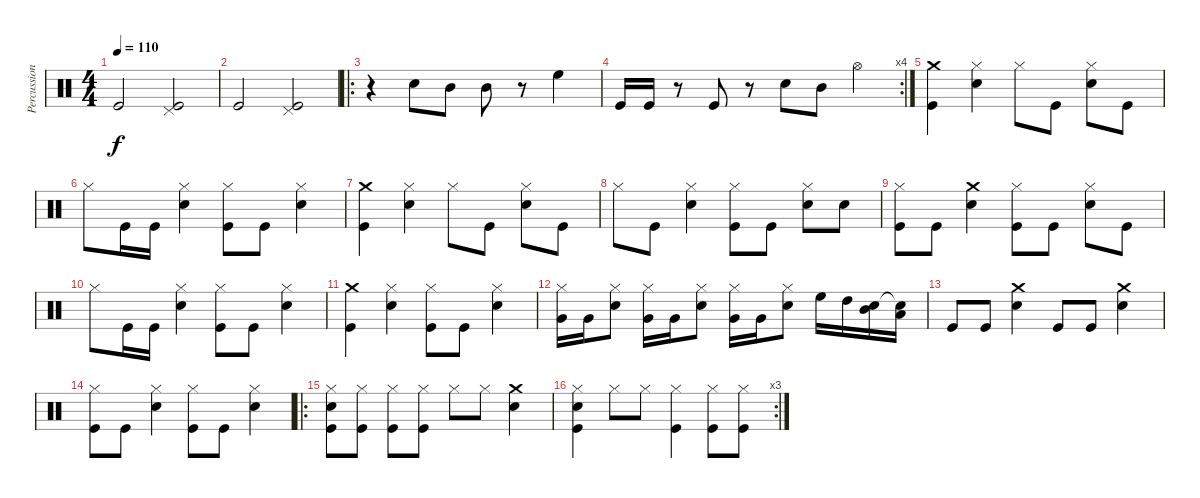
\track ("Percussion" "Percussion") {instrument percussion}
\staff {score}
\articulation defaults
\ts (4 4)
\tempo 110
\clef neutral
\ks c "Kick (hit)".2{dy f}
("Pedal Hi-Hat (hit)" "Kick (hit)").2 |
"Kick (hit)".2 ("Pedal Hi-Hat (hit)" "Kick (hit)").2 |
\ro
r.4 "Snare (hit) 2".8 "Mid Tom (hit)".8 "Mid Tom (hit)".8 r.8 "High Floor Tom (hit)".4 |
\rc 4 "Kick (hit)".16 "Kick (hit)".16
r.8 "Kick (hit)".8 r.8 "Snare (hit) 2".8 "Mid Tom (hit)".8 "Hi-Hat (open)".4 |
("Kick (hit)" "Crash medium (hit)").4 ("Hi-Hat (closed)" "Snare (hit) 2").4 "Hi-Hat (closed)".8 "Kick (hit)".8 ("Snare (hit) 2" "Hi-Hat (closed)").8 "Kick (hit)".8 |
"Hi-Hat (closed)".8 "Kick (hit)".16 "Kick (hit)".16 ("Snare (hit) 2" "Hi-Hat (closed)").4 ("Kick (hit)" "Hi-Hat (closed)").8 "Kick (hit)".8 ("Snare (hit) 2" "Hi-Hat (closed)").4 |
("Kick (hit)" "Crash medium (hit)").4 ("Snare (hit) 2" "Hi-Hat (closed)").4 "Hi-Hat (closed)".8 "Kick (hit)".8 ("Snare (hit) 2" "Hi-Hat (closed)").8 "Kick (hit)".8 |
"Hi-Hat (closed)".8 "Kick (hit)".8 ("Snare (hit) 2" "Hi-Hat (closed)").4 ("Kick (hit)" "Hi-Hat (closed)").8 "Kick (hit)".8 ("Snare (hit) 2" "Hi-Hat (closed)").8 "Snare (hit) 2".8 |
("Hi-Hat (closed)" "Kick (hit)").8 "Kick (hit)".8 ("Crash medium (hit)" "Snare (hit) 2").4 ("Hi-Hat (closed)" "Kick (hit)").8 "Kick (hit)".8 ("Snare (hit) 2" "Hi-Hat (closed)").8 "Kick (hit)".8 |
"Hi-Hat (closed)".8 "Kick (hit)".16 "Kick (hit)".16 ("Snare (hit) 2" "Hi-Hat (closed)").4 ("Kick (hit)" "Hi-Hat (closed)").8 "Kick (hit)".8 ("Snare (hit) 2" "Hi-Hat (closed)").4 |
("Kick (hit)" "Crash medium (hit)").4 ("Snare (hit) 2" "Hi-Hat (closed)").4 ("Hi-Hat (closed)" "Kick (hit)").8 "Kick (hit)".8 ("Snare (hit) 2" "Hi-Hat (closed)").4 |
("Hi-Hat (closed)" "Very Low Tom (hit)").16 "Very Low Tom (hit)".16 ("Hi-Hat (closed)" "Snare (hit) 2").8 ("Hi-Hat (closed)" "Very Low Tom (hit)").16 "Very Low Tom (hit)".16 ("Hi-Hat (closed)" "Snare (hit) 2").8 ("Hi-Hat (closed)" "Very Low Tom (hit)").16 "Very Low Tom (hit)".16 ("Hi-Hat (closed)" "Snare (hit) 2").8 "High Floor Tom (hit)".16 "High Tom (hit)".16 ("Mid Tom (hit)" "Snare (hit) 2").16 ("Low Tom (hit)" "Snare (hit)"{t}).16 |
"Kick (hit)".8 "Kick (hit)".8 ("Crash medium (hit)" "Snare (hit) 2").4 "Kick (hit)".8 "Kick (hit)".8 ("Crash medium (hit)" "Snare (hit) 2").4 |
("Kick (hit)" "Hi-Hat (closed)").8 "Kick (hit)".8 ("Snare (hit) 2" "Hi-Hat (closed)").4 ("Kick (hit)" "Hi-Hat (closed)").8 "Kick (hit)".8 ("Snare (hit) 2" "Hi-Hat (closed)").4 |
\ro
("Kick (hit)" "Hi-Hat (closed)" "Snare (hit) 2").8 ("Kick (hit)" "Hi-Hat (closed)").8 ("Kick (hit)" "Hi-Hat (closed)").8 ("Kick (hit)" "Hi-Hat (closed)").8 "Hi-Hat (closed)".8 "Hi-Hat (closed)".8 ("Crash medium (hit)" "Snare (hit) 2").4 |
\rc 3
("Hi-Hat (closed)" "Snare (hit) 2" "Kick (hit)").4 "Hi-Hat (closed)".8 "Hi-Hat (closed)".8 ("Hi-Hat (closed)" "Kick (hit)").4 ("Hi-Hat (closed)" "Kick (hit)").8 ("Hi-Hat (closed)" "Kick (hit)").8
